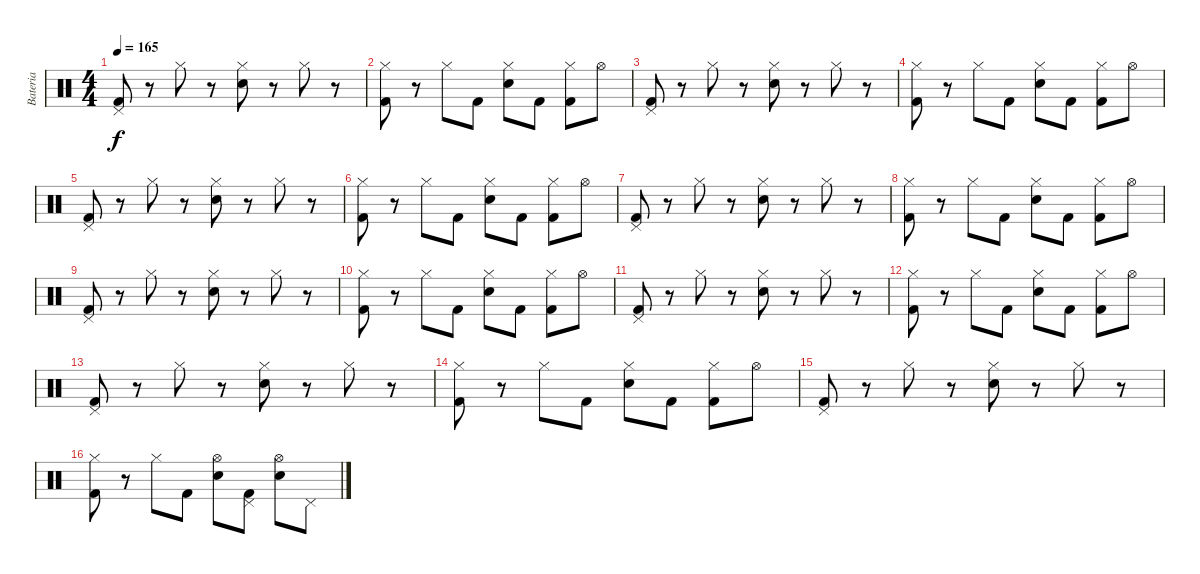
\track ("Bateria" "Bateria") {instrument percussion}
\staff {score}
\articulation defaults
\ts (4 4)
\tempo 165
\clef neutral
\ks c
("Pedal Hi-Hat (hit)" "Kick (hit) 2").8{dy f} r.8 "Hi-Hat (closed)".8 r.8 ("Hi-Hat (closed)" "Snare (hit) 2").8 r.8 "Hi-Hat (closed)".8 r.8 |
("Hi-Hat (closed)" "Kick (hit) 2").8 r.8 "Hi-Hat (closed)".8 "Kick (hit) 2".8 ("Hi-Hat (closed)" "Snare (hit) 2").8 "Kick (hit) 2".8 ("Hi-Hat (closed)" "Kick (hit) 2").8 "Hi-Hat (open)".8 |
("Pedal Hi-Hat (hit)" "Kick (hit) 2").8 r.8 "Hi-Hat (closed)".8 r.8 ("Hi-Hat (closed)" "Snare (hit) 2").8 r.8 "Hi-Hat (closed)".8 r.8 |
("Hi-Hat (closed)" "Kick (hit) 2").8 r.8 "Hi-Hat (closed)".8 "Kick (hit) 2".8 ("Hi-Hat (closed)" "Snare (hit) 2").8 "Kick (hit) 2".8 ("Hi-Hat (closed)" "Kick (hit) 2").8 "Hi-Hat (open)".8 |
("Pedal Hi-Hat (hit)" "Kick (hit) 2").8 r.8 "Hi-Hat (closed)".8 r.8 ("Hi-Hat (closed)" "Snare (hit) 2").8 r.8 "Hi-Hat (closed)".8 r.8 |
("Hi-Hat (closed)" "Kick (hit) 2").8 r.8 "Hi-Hat (closed)".8 "Kick (hit) 2".8 ("Hi-Hat (closed)" "Snare (hit) 2").8 "Kick (hit) 2".8 ("Hi-Hat (closed)" "Kick (hit) 2").8 "Hi-Hat (open)".8 |
("Pedal Hi-Hat (hit)" "Kick (hit) 2").8 r.8 "Hi-Hat (closed)".8 r.8 ("Hi-Hat (closed)" "Snare (hit) 2").8 r.8 "Hi-Hat (closed)".8 r.8 |
("Hi-Hat (closed)" "Kick (hit) 2").8 r.8 "Hi-Hat (closed)".8 "Kick (hit) 2".8 ("Hi-Hat (closed)" "Snare (hit) 2").8 "Kick (hit) 2".8 ("Hi-Hat (closed)" "Kick (hit) 2").8 "Hi-Hat (open)".8 |
("Pedal Hi-Hat (hit)" "Kick (hit) 2").8 r.8 "Hi-Hat (closed)".8 r.8 ("Hi-Hat (closed)" "Snare (hit) 2").8 r.8 "Hi-Hat (closed)".8 r.8 |
("Hi-Hat (closed)" "Kick (hit) 2").8 r.8 "Hi-Hat (closed)".8 "Kick (hit) 2".8 ("Hi-Hat (closed)" "Snare (hit) 2").8 "Kick (hit) 2".8 ("Hi-Hat (closed)" "Kick (hit) 2").8 "Hi-Hat (open)".8 |
("Pedal Hi-Hat (hit)" "Kick (hit) 2").8 r.8 "Hi-Hat (closed)".8 r.8 ("Hi-Hat (closed)" "Snare (hit) 2").8 r.8 "Hi-Hat (closed)".8 r.8 |
("Hi-Hat (closed)" "Kick (hit) 2").8 r.8 "Hi-Hat (closed)".8 "Kick (hit) 2".8 ("Hi-Hat (closed)" "Snare (hit) 2").8 "Kick (hit) 2".8 ("Hi-Hat (closed)" "Kick (hit) 2").8 "Hi-Hat (open)".8 |
("Pedal Hi-Hat (hit)" "Kick (hit) 2").8 r.8 "Hi-Hat (closed)".8 r.8 ("Hi-Hat (closed)" "Snare (hit) 2").8 r.8 "Hi-Hat (closed)".8 r.8 |
("Hi-Hat (closed)" "Kick (hit) 2").8 r.8 "Hi-Hat (closed)".8 "Kick (hit) 2".8 ("Hi-Hat (closed)" "Snare (hit) 2").8 "Kick (hit) 2".8 ("Hi-Hat (closed)" "Kick (hit) 2").8 "Hi-Hat (open)".8 |
("Pedal Hi-Hat (hit)" "Kick (hit) 2").8 r.8 "Hi-Hat (closed)".8 r.8 ("Hi-Hat (closed)" "Snare (hit) 2").8 r.8 "Hi-Hat (closed)".8 r.8 |
("Hi-Hat (closed)" "Kick (hit) 2").8 r.8 "Hi-Hat (closed)".8 "Kick (hit) 2".8 ("Hi-Hat (open)" "Snare (hit) 2").8 ("Pedal Hi-Hat (hit)" "Kick (hit) 2").8 ("Hi-Hat (open)" "Snare (hit) 2").8 "Pedal Hi-Hat (hit)".8
